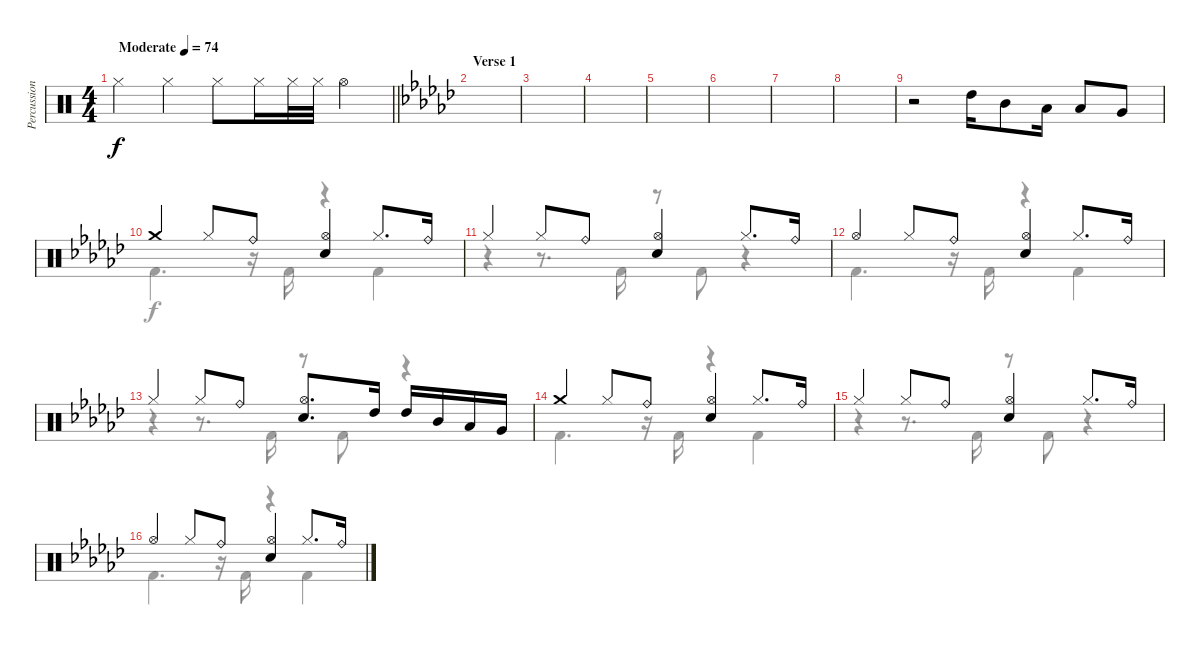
\track ("Percussion" "Percussion") {instrument percussion}
\staff {score}
\articulation defaults
\voice
\ts (4 4)
\tempo (74 "Moderate")
\clef neutral
\barLineRight lightlight
\ks c "Hi-Hat (closed)".4{dy f} "Hi-Hat (closed)".4 "Hi-Hat (closed)".8 "Hi-Hat (closed)".16 "Hi-Hat (closed)".32 "Hi-Hat (closed)".32 "Hi-Hat (open)".4
|
\section ("" "Verse 1")
\ks ebminor
|
|
|
|
|
|
|
r.2 "High Tom (hit)".16 "Mid Tom (hit)".8 "Low Tom (hit)".16 "Low Tom (hit)".8 "Very Low Tom (hit)".8 |
"Crash medium (hit)".4 "Hi-Hat (closed)".8 "Ride (bell)".8 ("Hi-Hat (open)" "Snare (hit) 2").4 "Hi-Hat (closed)".8{d} "Ride (bell)".16 |
"Hi-Hat (closed)".4 "Hi-Hat (closed)".8 "Ride (bell)".8 ("Hi-Hat (open)" "Snare (hit) 2").4 "Hi-Hat (closed)".8{d} "Ride (bell)".16 |
"Hi-Hat (open)".4 "Hi-Hat (closed)".8 "Ride (bell)".8 ("Hi-Hat (open)" "Snare (hit) 2").4 "Hi-Hat (closed)".8{d} "Ride (bell)".16 |
"Hi-Hat (closed)".4 "Hi-Hat (closed)".8 "Ride (bell)".8 ("Hi-Hat (open)" "Snare (hit) 2").8{d} "High Tom (hit)".16 "High Tom (hit)".16 "Mid Tom (hit)".16 "Low Tom (hit)".16 "Very Low Tom (hit)".16 |
"Crash medium (hit)".4 "Hi-Hat (closed)".8 "Ride (bell)".8 ("Hi-Hat (open)" "Snare (hit) 2").4 "Hi-Hat (closed)".8{d} "Ride (bell)".16 |
"Hi-Hat (closed)".4 "Hi-Hat (closed)".8 "Ride (bell)".8 ("Hi-Hat (open)" "Snare (hit) 2").4 "Hi-Hat (closed)".8{d} "Ride (bell)".16 |
"Hi-Hat (open)".4 "Hi-Hat (closed)".8 "Ride (bell)".8 ("Hi-Hat (open)" "Snare (hit) 2").4 "Hi-Hat (closed)".8{d} "Ride (bell)".16
\voice
\clef neutral
\ottava regular
\simile none
\barLineRight lightlight
\ks c
|
\ks ebminor
|
|
|
|
|
|
|
|
"Kick (hit) 2".4{d} r.16 "Kick (hit) 2".16 r.4 "Kick (hit) 2".4 |
r.4 r.8{d} "Kick (hit) 2".16 r.8 "Kick (hit) 2".8 r.4 |
"Kick (hit) 2".4{d} r.16 "Kick (hit) 2".16 r.4 "Kick (hit) 2".4 |
r.4 r.8{d} "Kick (hit) 2".16 r.8 "Kick (hit) 2".8 r.4 |
"Kick (hit) 2".4{d} r.16 "Kick (hit) 2".16 r.4 "Kick (hit) 2".4 |
r.4 r.8{d} "Kick (hit) 2".16 r.8 "Kick (hit) 2".8 r.4 |
"Kick (hit) 2".4{d} r.16 "Kick (hit) 2".16 r.4 "Kick (hit) 2".4
